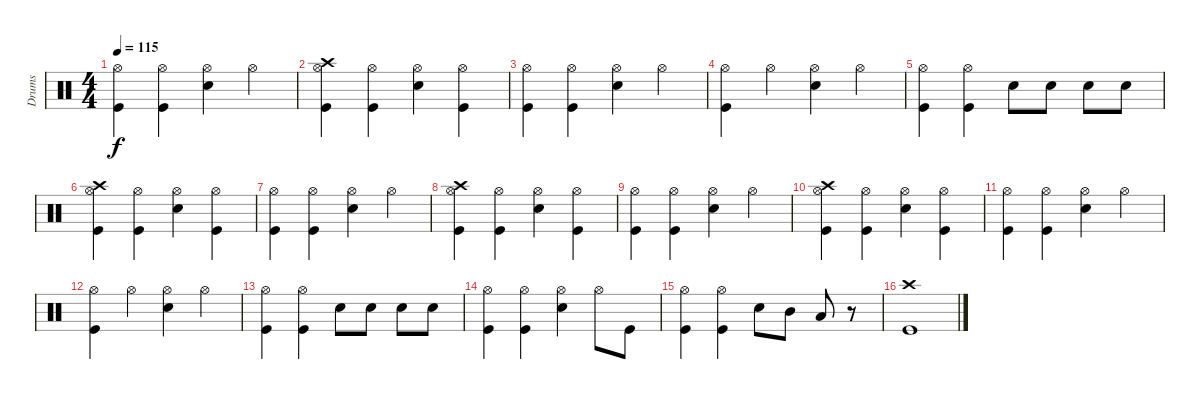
\track ("Drums" "Drums") {instrument percussion}
\staff {score}
\articulation defaults
\ts (4 4)
\tempo 115
\clef neutral
\ks c
("Hi-Hat (open)" "Kick (hit)").4{dy f} ("Hi-Hat (open)" "Kick (hit)").4 ("Hi-Hat (open)" "Snare (hit) 2").4 "Hi-Hat (open)".4 |
("Crash high (hit)" "Hi-Hat (open)" "Kick (hit)").4 ("Hi-Hat (open)" "Kick (hit)").4 ("Hi-Hat (open)" "Snare (hit) 2").4 ("Hi-Hat (open)" "Kick (hit)").4 |
("Hi-Hat (open)" "Kick (hit)").4 ("Hi-Hat (open)" "Kick (hit)").4 ("Hi-Hat (open)" "Snare (hit) 2").4 "Hi-Hat (open)".4 |
("Hi-Hat (open)" "Kick (hit)").4 "Hi-Hat (open)".4 ("Hi-Hat (open)" "Snare (hit) 2").4 "Hi-Hat (open)".4 |
("Hi-Hat (open)" "Kick (hit)").4 ("Hi-Hat (open)" "Kick (hit)").4 "Snare (hit) 2".8 "Snare (hit) 2".8 "Snare (hit) 2".8 "Snare (hit) 2".8 |
("Crash high (hit)" "Hi-Hat (open)" "Kick (hit)").4 ("Hi-Hat (open)" "Kick (hit)").4 ("Hi-Hat (open)" "Snare (hit) 2").4 ("Hi-Hat (open)" "Kick (hit)").4 |
("Hi-Hat (open)" "Kick (hit)").4 ("Hi-Hat (open)" "Kick (hit)").4 ("Hi-Hat (open)" "Snare (hit) 2").4 "Hi-Hat (open)".4 |
("Crash high (hit)" "Hi-Hat (open)" "Kick (hit)").4 ("Hi-Hat (open)" "Kick (hit)").4 ("Hi-Hat (open)" "Snare (hit) 2").4 ("Hi-Hat (open)" "Kick (hit)").4 |
("Hi-Hat (open)" "Kick (hit)").4 ("Hi-Hat (open)" "Kick (hit)").4 ("Hi-Hat (open)" "Snare (hit) 2").4 "Hi-Hat (open)".4 |
("Crash high (hit)" "Hi-Hat (open)" "Kick (hit)").4 ("Hi-Hat (open)" "Kick (hit)").4 ("Hi-Hat (open)" "Snare (hit) 2").4 ("Hi-Hat (open)" "Kick (hit)").4 |
("Hi-Hat (open)" "Kick (hit)").4 ("Hi-Hat (open)" "Kick (hit)").4 ("Hi-Hat (open)" "Snare (hit) 2").4 "Hi-Hat (open)".4 |
("Hi-Hat (open)" "Kick (hit)").4 "Hi-Hat (open)".4 ("Hi-Hat (open)" "Snare (hit) 2").4 "Hi-Hat (open)".4 |
("Hi-Hat (open)" "Kick (hit)").4 ("Hi-Hat (open)" "Kick (hit)").4 "Snare (hit) 2".8 "Snare (hit) 2".8 "Snare (hit) 2".8 "Snare (hit) 2".8 |
("Hi-Hat (open)" "Kick (hit)").4 ("Hi-Hat (open)" "Kick (hit)").4 ("Hi-Hat (open)" "Snare (hit) 2").4 "Hi-Hat (open)".8 "Kick (hit)".8 |
("Hi-Hat (open)" "Kick (hit)").4 ("Hi-Hat (open)" "Kick (hit)").4 "Snare (hit) 2".8 "Mid Tom (hit)".8 "Low Tom (hit)".8 r.8 |
("Crash high (hit)" "Kick (hit)").1
